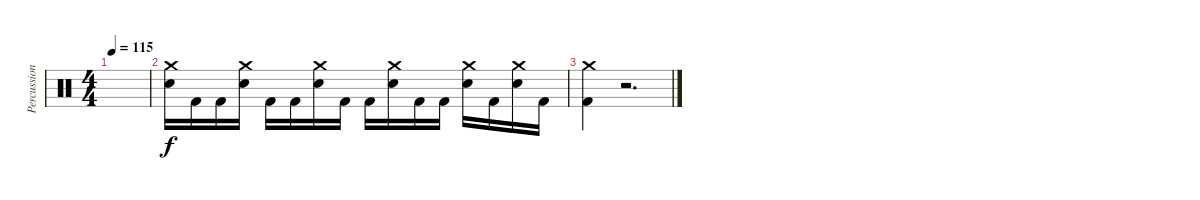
\track ("Percussion" "Percussion") {instrument percussion}
\staff {score}
\articulation defaults
\ts (4 4)
\tempo 115
\clef neutral
\ks c
|
("Crash medium (hit)" "Snare (hit) 2").16 "Kick (hit) 2".16 "Kick (hit) 2".16 ("Crash medium (hit)" "Snare (hit) 2").16 "Kick (hit) 2".16 "Kick (hit) 2".16 ("Crash medium (hit)" "Snare (hit) 2").16 "Kick (hit) 2".16 "Kick (hit) 2".16 ("Crash medium (hit)" "Snare (hit) 2").16 "Kick (hit) 2".16 "Kick (hit) 2".16 ("Crash medium (hit)" "Snare (hit) 2").16 "Kick (hit) 2".16 ("Crash medium (hit)" "Snare (hit) 2").16 "Kick (hit) 2".16 |
("Crash medium (hit)" "Kick (hit) 2").4 r.2{d}
